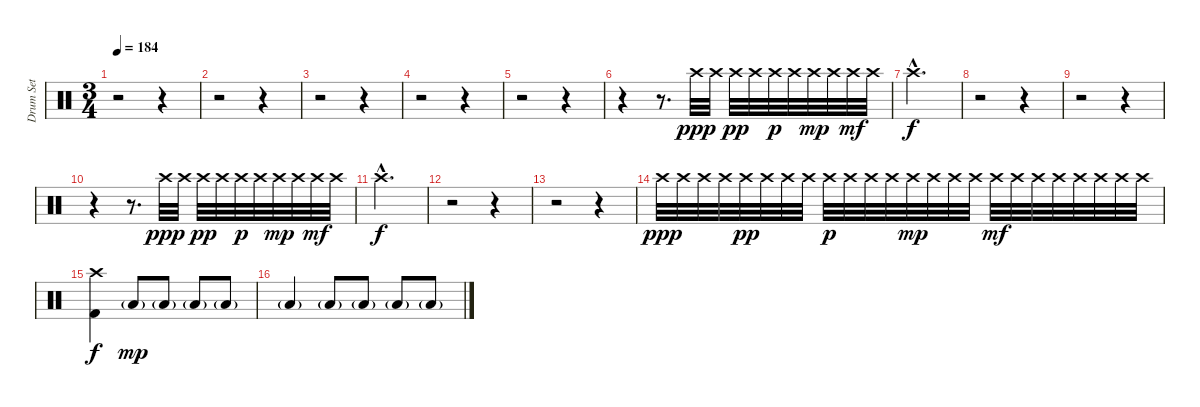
\track ("Drum Set" "Drum Set") {instrument percussion}
\staff {score}
\articulation defaults
\ts (3 4)
\tempo 184
\clef neutral
\ks c
r.2{dy f} r.4 |
r.2 r.4 |
r.2 r.4 |
r.2 r.4 |
r.2 r.4 |
r.4{volume 10} r.8{d} "Crash high (hit)".32{dy ppp} "Crash high (hit)".32 "Crash high (hit)".32{dy pp} "Crash high (hit)".32 "Crash high (hit)".32{dy p} "Crash high (hit)".32 "Crash high (hit)".32{dy mp} "Crash high (hit)".32 "Crash high (hit)".32{dy mf} "Crash high (hit)".32 |
"Crash high (hit)"{hac}.2{d dy f} |
r.2 r.4 |
r.2 r.4 |
r.4{volume 5} r.8{d} "Crash high (hit)".32{dy ppp} "Crash high (hit)".32 "Crash high (hit)".32{dy pp} "Crash high (hit)".32 "Crash high (hit)".32{dy p} "Crash high (hit)".32 "Crash high (hit)".32{dy mp} "Crash high (hit)".32 "Crash high (hit)".32{dy mf} "Crash high (hit)".32 |
"Crash high (hit)"{hac}.2{d dy f} |
r.2 r.4 |
r.2 r.4 |
"Crash high (hit)".32{dy ppp volume 13} "Crash high (hit)".32 "Crash high (hit)".32 "Crash high (hit)".32 "Crash high (hit)".32{dy pp} "Crash high (hit)".32 "Crash high (hit)".32 "Crash high (hit)".32 "Crash high (hit)".32{dy p} "Crash high (hit)".32 "Crash high (hit)".32 "Crash high (hit)".32 "Crash high (hit)".32{dy mp} "Crash high (hit)".32 "Crash high (hit)".32 "Crash high (hit)".32 "Crash high (hit)".32{dy mf} "Crash high (hit)".32 "Crash high (hit)".32 "Crash high (hit)".32 "Crash high (hit)".32 "Crash high (hit)".32 "Crash high (hit)".32 "Crash high (hit)".32 |
("Crash high (hit)" "Kick (hit) 2").4{dy f} "Low Floor Tom (hit)"{g}.8{dy mp} "Low Floor Tom (hit)"{g}.8 "Low Floor Tom (hit)"{g}.8 "Low Floor Tom (hit)"{g}.8 |
"Low Floor Tom (hit)"{g}.4 "Low Floor Tom (hit)"{g}.8 "Low Floor Tom (hit)"{g}.8 "Low Floor Tom (hit)"{g}.8 "Low Floor Tom (hit)"{g}.8
